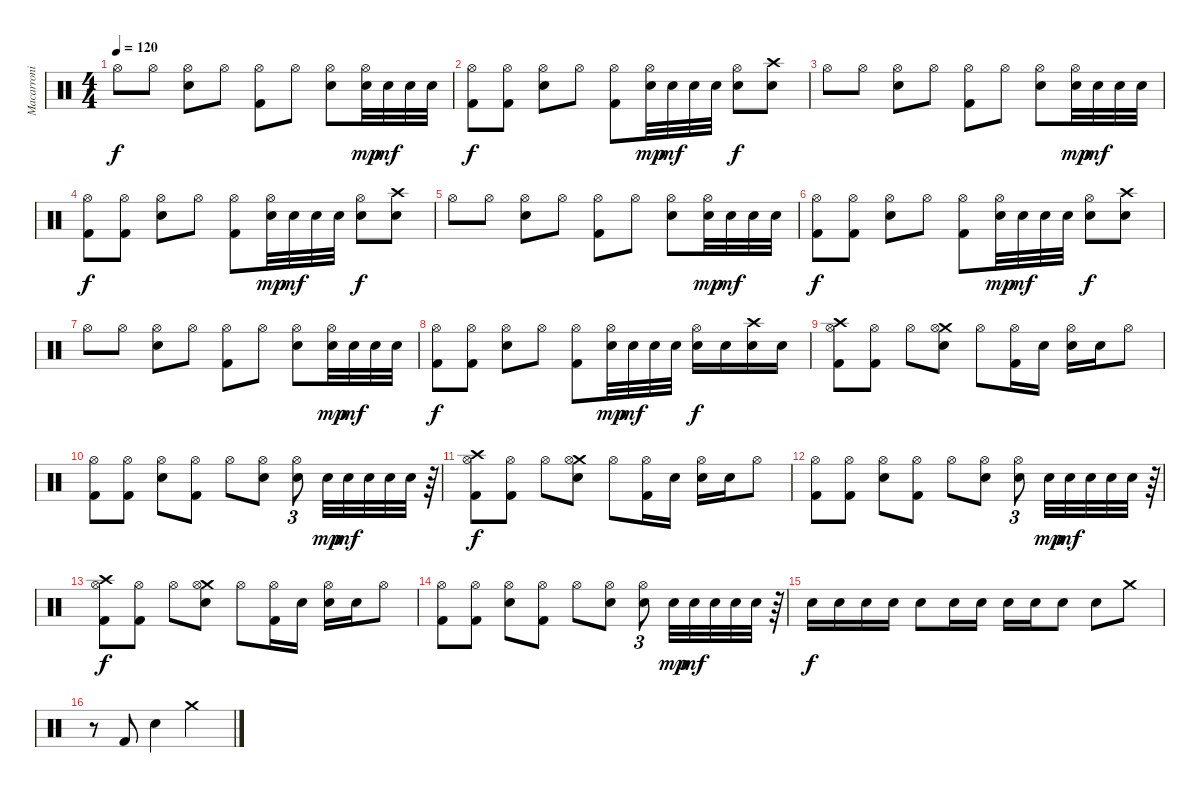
\track ("Macarroni" "Macarroni") {instrument percussion}
\staff {score}
\articulation defaults
\ts (4 4)
\tempo 120
\clef neutral
\ks c "Hi-Hat (open)".8{dy f} "Hi-Hat (open)".8
("Hi-Hat (open)" "Electric Snare (hit)").8 "Hi-Hat (open)".8 ("Hi-Hat (open)" "Kick (hit) 2").8 "Hi-Hat (open)".8 ("Hi-Hat (open)" "Electric Snare (hit)").8 ("Hi-Hat (open)" "Electric Snare (hit)").32{dy mp} "Electric Snare (hit)".32{dy mf} "Electric Snare (hit)".32 "Electric Snare (hit)".32 |
("Hi-Hat (open)" "Kick (hit) 2").8{dy f} ("Hi-Hat (open)" "Kick (hit) 2").8 ("Hi-Hat (open)" "Electric Snare (hit)").8 "Hi-Hat (open)".8 ("Hi-Hat (open)" "Kick (hit) 2").8 ("Hi-Hat (open)" "Electric Snare (hit)").32{dy mp} "Electric Snare (hit)".32{dy mf} "Electric Snare (hit)".32 "Electric Snare (hit)".32 ("Hi-Hat (open)" "Electric Snare (hit)").8{dy f} ("Crash high (hit)" "Electric Snare (hit)").8 |
"Hi-Hat (open)".8 "Hi-Hat (open)".8 ("Hi-Hat (open)" "Electric Snare (hit)").8 "Hi-Hat (open)".8 ("Hi-Hat (open)" "Kick (hit) 2").8 "Hi-Hat (open)".8 ("Hi-Hat (open)" "Electric Snare (hit)").8 ("Hi-Hat (open)" "Electric Snare (hit)").32{dy mp} "Electric Snare (hit)".32{dy mf} "Electric Snare (hit)".32 "Electric Snare (hit)".32 |
("Hi-Hat (open)" "Kick (hit) 2").8{dy f} ("Hi-Hat (open)" "Kick (hit) 2").8 ("Hi-Hat (open)" "Electric Snare (hit)").8 "Hi-Hat (open)".8 ("Hi-Hat (open)" "Kick (hit) 2").8 ("Hi-Hat (open)" "Electric Snare (hit)").32{dy mp} "Electric Snare (hit)".32{dy mf} "Electric Snare (hit)".32 "Electric Snare (hit)".32 ("Hi-Hat (open)" "Electric Snare (hit)").8{dy f} ("Crash high (hit)" "Electric Snare (hit)").8 |
"Hi-Hat (open)".8 "Hi-Hat (open)".8 ("Hi-Hat (open)" "Electric Snare (hit)").8 "Hi-Hat (open)".8 ("Hi-Hat (open)" "Kick (hit) 2").8 "Hi-Hat (open)".8 ("Hi-Hat (open)" "Electric Snare (hit)").8 ("Hi-Hat (open)" "Electric Snare (hit)").32{dy mp} "Electric Snare (hit)".32{dy mf} "Electric Snare (hit)".32 "Electric Snare (hit)".32 |
("Hi-Hat (open)" "Kick (hit) 2").8{dy f} ("Hi-Hat (open)" "Kick (hit) 2").8 ("Hi-Hat (open)" "Electric Snare (hit)").8 "Hi-Hat (open)".8 ("Hi-Hat (open)" "Kick (hit) 2").8 ("Hi-Hat (open)" "Electric Snare (hit)").32{dy mp} "Electric Snare (hit)".32{dy mf} "Electric Snare (hit)".32 "Electric Snare (hit)".32 ("Hi-Hat (open)" "Electric Snare (hit)").8{dy f} ("Crash high (hit)" "Electric Snare (hit)").8 |
"Hi-Hat (open)".8 "Hi-Hat (open)".8 ("Hi-Hat (open)" "Electric Snare (hit)").8 "Hi-Hat (open)".8 ("Hi-Hat (open)" "Kick (hit) 2").8 "Hi-Hat (open)".8 ("Hi-Hat (open)" "Electric Snare (hit)").8 ("Hi-Hat (open)" "Electric Snare (hit)").32{dy mp} "Electric Snare (hit)".32{dy mf} "Electric Snare (hit)".32 "Electric Snare (hit)".32 |
("Hi-Hat (open)" "Kick (hit) 2").8{dy f} ("Hi-Hat (open)" "Kick (hit) 2").8 ("Hi-Hat (open)" "Electric Snare (hit)").8 "Hi-Hat (open)".8 ("Hi-Hat (open)" "Kick (hit) 2").8 ("Hi-Hat (open)" "Electric Snare (hit)").32{dy mp} "Electric Snare (hit)".32{dy mf} "Electric Snare (hit)".32 "Electric Snare (hit)".32 ("Hi-Hat (open)" "Electric Snare (hit)").16{dy f} "Electric Snare (hit)".16 ("Crash high (hit)" "Electric Snare (hit)").16 "Electric Snare (hit)".16 |
("Crash high (hit)" "Hi-Hat (open)" "Kick (hit) 2").8 ("Hi-Hat (open)" "Kick (hit) 2").8 "Hi-Hat (open)".8 ("Crash medium (hit)" "Hi-Hat (open)" "Electric Snare (hit)").8 "Hi-Hat (open)".8 ("Hi-Hat (open)" "Kick (hit) 2").16 "Electric Snare (hit)".16 ("Hi-Hat (open)" "Electric Snare (hit)").16 "Electric Snare (hit)".16 "Hi-Hat (open)".8 |
("Hi-Hat (open)" "Kick (hit) 2").8 ("Hi-Hat (open)" "Kick (hit) 2").8 ("Hi-Hat (open)" "Electric Snare (hit)").8 ("Hi-Hat (open)" "Kick (hit) 2").8 "Hi-Hat (open)".8 ("Hi-Hat (open)" "Electric Snare (hit)").8 ("Hi-Hat (open)" "Electric Snare (hit)").8{tu (3 2)} "Electric Snare (hit)".32{dy mp} "Electric Snare (hit)".32{dy mf} "Electric Snare (hit)".32 "Electric Snare (hit)".32 "Electric Snare (hit)".32 r.64{tu (3 2)} |
("Crash high (hit)" "Hi-Hat (open)" "Kick (hit) 2").8{dy f} ("Hi-Hat (open)" "Kick (hit) 2").8 "Hi-Hat (open)".8 ("Crash medium (hit)" "Hi-Hat (open)" "Electric Snare (hit)").8 "Hi-Hat (open)".8 ("Hi-Hat (open)" "Kick (hit) 2").16 "Electric Snare (hit)".16 ("Hi-Hat (open)" "Electric Snare (hit)").16 "Electric Snare (hit)".16 "Hi-Hat (open)".8 |
("Hi-Hat (open)" "Kick (hit) 2").8 ("Hi-Hat (open)" "Kick (hit) 2").8 ("Hi-Hat (open)" "Electric Snare (hit)").8 ("Hi-Hat (open)" "Kick (hit) 2").8 "Hi-Hat (open)".8 ("Hi-Hat (open)" "Electric Snare (hit)").8 ("Hi-Hat (open)" "Electric Snare (hit)").8{tu (3 2)} "Electric Snare (hit)".32{dy mp} "Electric Snare (hit)".32{dy mf} "Electric Snare (hit)".32 "Electric Snare (hit)".32 "Electric Snare (hit)".32 r.64{tu (3 2)} |
("Crash high (hit)" "Hi-Hat (open)" "Kick (hit) 2").8{dy f} ("Hi-Hat (open)" "Kick (hit) 2").8 "Hi-Hat (open)".8 ("Crash medium (hit)" "Hi-Hat (open)" "Electric Snare (hit)").8 "Hi-Hat (open)".8 ("Hi-Hat (open)" "Kick (hit) 2").16 "Electric Snare (hit)".16 ("Hi-Hat (open)" "Electric Snare (hit)").16 "Electric Snare (hit)".16 "Hi-Hat (open)".8 |
("Hi-Hat (open)" "Kick (hit) 2").8 ("Hi-Hat (open)" "Kick (hit) 2").8 ("Hi-Hat (open)" "Electric Snare (hit)").8 ("Hi-Hat (open)" "Kick (hit) 2").8 "Hi-Hat (open)".8 ("Hi-Hat (open)" "Electric Snare (hit)").8 ("Hi-Hat (open)" "Electric Snare (hit)").8{tu (3 2)} "Electric Snare (hit)".32{dy mp} "Electric Snare (hit)".32{dy mf} "Electric Snare (hit)".32 "Electric Snare (hit)".32 "Electric Snare (hit)".32 r.64{tu (3 2)} |
"Electric Snare (hit)".16{dy f} "Electric Snare (hit)".16 "Electric Snare (hit)".16 "Electric Snare (hit)".16 "Electric Snare (hit)".8 "Electric Snare (hit)".16 "Electric Snare (hit)".16 "Electric Snare (hit)".16 "Electric Snare (hit)".16 "Electric Snare (hit)".8 "Electric Snare (hit)".8 "Crash medium (hit)".8 |
r.8 "Kick (hit) 2".8 "Electric Snare (hit)".4 "Crash medium (hit)".2
